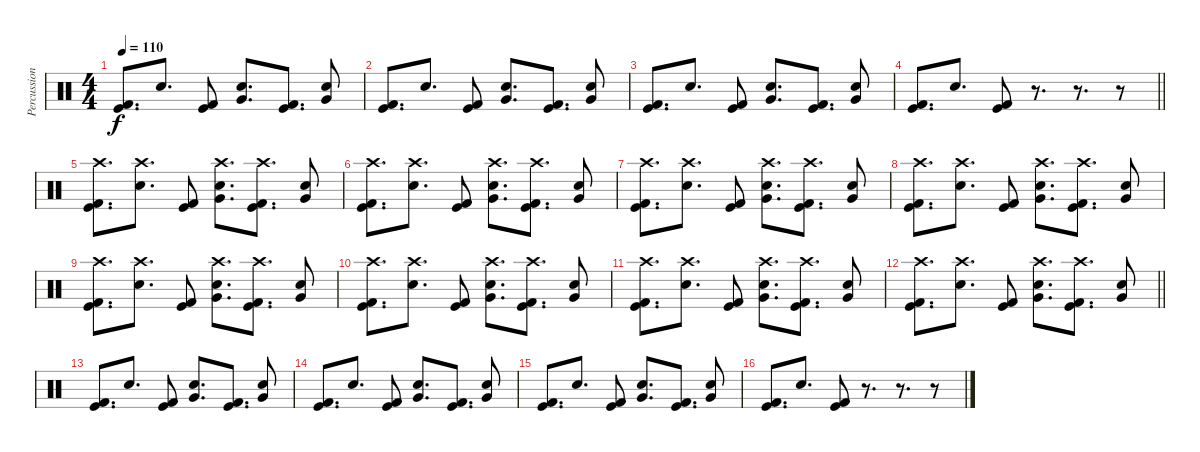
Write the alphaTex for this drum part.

\track ("Percussion" "Percussion") {instrument percussion}
\staff {score}
\articulation defaults
\ts (4 4)
\tempo 110
\clef neutral
\ks c
("Kick (hit) 2" "Kick (hit)").8{d dy f} "Snare (hit) 2".8{d} ("Kick (hit) 2" "Kick (hit)").8 ("Very Low Tom (hit)" "Snare (hit) 2").8{d} ("Kick (hit) 2" "Kick (hit)").8{d} ("Very Low Tom (hit)" "Snare (hit) 2").8 |
("Kick (hit) 2" "Kick (hit)").8{d} "Snare (hit) 2".8{d} ("Kick (hit) 2" "Kick (hit)").8 ("Very Low Tom (hit)" "Snare (hit) 2").8{d} ("Kick (hit) 2" "Kick (hit)").8{d} ("Very Low Tom (hit)" "Snare (hit) 2").8 |
("Kick (hit) 2" "Kick (hit)").8{d} "Snare (hit) 2".8{d} ("Kick (hit) 2" "Kick (hit)").8 ("Very Low Tom (hit)" "Snare (hit) 2").8{d} ("Kick (hit) 2" "Kick (hit)").8{d} ("Very Low Tom (hit)" "Snare (hit) 2").8 |
\barLineRight lightlight
("Kick (hit) 2" "Kick (hit)").8{d} "Snare (hit) 2".8{d} ("Kick (hit) 2" "Kick (hit)").8 r.8{d} r.8{d} r.8 |
("Crash high (hit)" "Kick (hit) 2" "Kick (hit)").8{d} ("Crash high (hit)" "Snare (hit) 2").8{d} ("Kick (hit) 2" "Kick (hit)").8 ("Crash high (hit)" "Very Low Tom (hit)" "Snare (hit) 2").8{d} ("Crash high (hit)" "Kick (hit) 2" "Kick (hit)").8{d} ("Very Low Tom (hit)" "Snare (hit) 2").8 |
("Crash high (hit)" "Kick (hit) 2" "Kick (hit)").8{d} ("Crash high (hit)" "Snare (hit) 2").8{d} ("Kick (hit) 2" "Kick (hit)").8 ("Crash high (hit)" "Very Low Tom (hit)" "Snare (hit) 2").8{d} ("Crash high (hit)" "Kick (hit) 2" "Kick (hit)").8{d} ("Very Low Tom (hit)" "Snare (hit) 2").8 |
("Crash high (hit)" "Kick (hit) 2" "Kick (hit)").8{d} ("Crash high (hit)" "Snare (hit) 2").8{d} ("Kick (hit) 2" "Kick (hit)").8 ("Crash high (hit)" "Very Low Tom (hit)" "Snare (hit) 2").8{d} ("Crash high (hit)" "Kick (hit) 2" "Kick (hit)").8{d} ("Very Low Tom (hit)" "Snare (hit) 2").8 |
("Crash high (hit)" "Kick (hit) 2" "Kick (hit)").8{d} ("Crash high (hit)" "Snare (hit) 2").8{d} ("Kick (hit) 2" "Kick (hit)").8 ("Crash high (hit)" "Very Low Tom (hit)" "Snare (hit) 2").8{d} ("Crash high (hit)" "Kick (hit) 2" "Kick (hit)").8{d} ("Very Low Tom (hit)" "Snare (hit) 2").8 |
("Crash high (hit)" "Kick (hit) 2" "Kick (hit)").8{d} ("Crash high (hit)" "Snare (hit) 2").8{d} ("Kick (hit) 2" "Kick (hit)").8 ("Crash high (hit)" "Very Low Tom (hit)" "Snare (hit) 2").8{d} ("Crash high (hit)" "Kick (hit) 2" "Kick (hit)").8{d} ("Very Low Tom (hit)" "Snare (hit) 2").8 |
("Crash high (hit)" "Kick (hit) 2" "Kick (hit)").8{d} ("Crash high (hit)" "Snare (hit) 2").8{d} ("Kick (hit) 2" "Kick (hit)").8 ("Crash high (hit)" "Very Low Tom (hit)" "Snare (hit) 2").8{d} ("Crash high (hit)" "Kick (hit) 2" "Kick (hit)").8{d} ("Very Low Tom (hit)" "Snare (hit) 2").8 |
("Crash high (hit)" "Kick (hit) 2" "Kick (hit)").8{d} ("Crash high (hit)" "Snare (hit) 2").8{d} ("Kick (hit) 2" "Kick (hit)").8 ("Crash high (hit)" "Very Low Tom (hit)" "Snare (hit) 2").8{d} ("Crash high (hit)" "Kick (hit) 2" "Kick (hit)").8{d} ("Very Low Tom (hit)" "Snare (hit) 2").8 |
\barLineRight lightlight
("Crash high (hit)" "Kick (hit) 2" "Kick (hit)").8{d} ("Crash high (hit)" "Snare (hit) 2").8{d} ("Kick (hit) 2" "Kick (hit)").8 ("Crash high (hit)" "Very Low Tom (hit)" "Snare (hit) 2").8{d} ("Crash high (hit)" "Kick (hit) 2" "Kick (hit)").8{d} ("Very Low Tom (hit)" "Snare (hit) 2").8 |
("Kick (hit) 2" "Kick (hit)").8{d} "Snare (hit) 2".8{d} ("Kick (hit) 2" "Kick (hit)").8 ("Very Low Tom (hit)" "Snare (hit) 2").8{d} ("Kick (hit) 2" "Kick (hit)").8{d} ("Very Low Tom (hit)" "Snare (hit) 2").8 |
("Kick (hit) 2" "Kick (hit)").8{d} "Snare (hit) 2".8{d} ("Kick (hit) 2" "Kick (hit)").8 ("Very Low Tom (hit)" "Snare (hit) 2").8{d} ("Kick (hit) 2" "Kick (hit)").8{d} ("Very Low Tom (hit)" "Snare (hit) 2").8 |
("Kick (hit) 2" "Kick (hit)").8{d} "Snare (hit) 2".8{d} ("Kick (hit) 2" "Kick (hit)").8 ("Very Low Tom (hit)" "Snare (hit) 2").8{d} ("Kick (hit) 2" "Kick (hit)").8{d} ("Very Low Tom (hit)" "Snare (hit) 2").8 |
("Kick (hit) 2" "Kick (hit)").8{d} "Snare (hit) 2".8{d} ("Kick (hit) 2" "Kick (hit)").8 r.8{d} r.8{d} r.8
